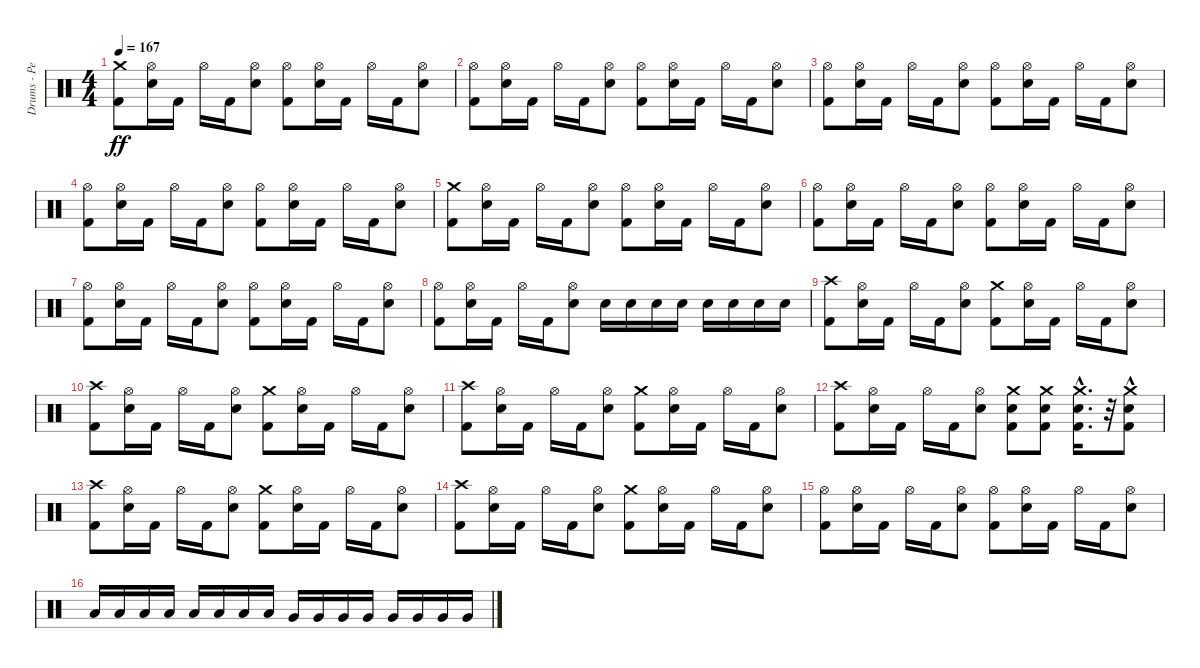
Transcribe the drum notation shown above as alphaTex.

\track ("Drums - Pete Finestone" "Drums - Pe") {instrument percussion}
\staff {score}
\articulation defaults
\ts (4 4)
\tempo 167
\clef neutral
\ks c
("Crash medium (hit)" "Kick (hit) 2").8{dy ff} ("Hi-Hat (open)" "Electric Snare (hit)").16 "Kick (hit) 2".16 "Hi-Hat (open)".16 "Kick (hit) 2".16 ("Electric Snare (hit)" "Hi-Hat (open)").8 ("Hi-Hat (open)" "Kick (hit) 2").8 ("Hi-Hat (open)" "Electric Snare (hit)").16 "Kick (hit) 2".16 "Hi-Hat (open)".16 "Kick (hit) 2".16 ("Hi-Hat (open)" "Electric Snare (hit)").8 |
("Hi-Hat (open)" "Kick (hit) 2").8 ("Hi-Hat (open)" "Electric Snare (hit)").16 "Kick (hit) 2".16 "Hi-Hat (open)".16 "Kick (hit) 2".16 ("Hi-Hat (open)" "Electric Snare (hit)").8 ("Hi-Hat (open)" "Kick (hit) 2").8 ("Hi-Hat (open)" "Electric Snare (hit)").16 "Kick (hit) 2".16 "Hi-Hat (open)".16 "Kick (hit) 2".16 ("Hi-Hat (open)" "Electric Snare (hit)").8 |
("Hi-Hat (open)" "Kick (hit) 2").8 ("Hi-Hat (open)" "Electric Snare (hit)").16 "Kick (hit) 2".16 "Hi-Hat (open)".16 "Kick (hit) 2".16 ("Hi-Hat (open)" "Electric Snare (hit)").8 ("Hi-Hat (open)" "Kick (hit) 2").8 ("Hi-Hat (open)" "Electric Snare (hit)").16 "Kick (hit) 2".16 "Hi-Hat (open)".16 "Kick (hit) 2".16 ("Hi-Hat (open)" "Electric Snare (hit)").8 |
("Hi-Hat (open)" "Kick (hit) 2").8 ("Hi-Hat (open)" "Electric Snare (hit)").16 "Kick (hit) 2".16 "Hi-Hat (open)".16 "Kick (hit) 2".16 ("Hi-Hat (open)" "Electric Snare (hit)").8 ("Hi-Hat (open)" "Kick (hit) 2").8 ("Hi-Hat (open)" "Electric Snare (hit)").16 "Kick (hit) 2".16 "Hi-Hat (open)".16 "Kick (hit) 2".16 ("Hi-Hat (open)" "Electric Snare (hit)").8 |
("Crash medium (hit)" "Kick (hit) 2").8 ("Hi-Hat (open)" "Electric Snare (hit)").16 "Kick (hit) 2".16 "Hi-Hat (open)".16 "Kick (hit) 2".16 ("Electric Snare (hit)" "Hi-Hat (open)").8 ("Hi-Hat (open)" "Kick (hit) 2").8 ("Hi-Hat (open)" "Electric Snare (hit)").16 "Kick (hit) 2".16 "Hi-Hat (open)".16 "Kick (hit) 2".16 ("Hi-Hat (open)" "Electric Snare (hit)").8 |
("Hi-Hat (open)" "Kick (hit) 2").8 ("Hi-Hat (open)" "Electric Snare (hit)").16 "Kick (hit) 2".16 "Hi-Hat (open)".16 "Kick (hit) 2".16 ("Hi-Hat (open)" "Electric Snare (hit)").8 ("Hi-Hat (open)" "Kick (hit) 2").8 ("Hi-Hat (open)" "Electric Snare (hit)").16 "Kick (hit) 2".16 "Hi-Hat (open)".16 "Kick (hit) 2".16 ("Hi-Hat (open)" "Electric Snare (hit)").8 |
("Hi-Hat (open)" "Kick (hit) 2").8 ("Hi-Hat (open)" "Electric Snare (hit)").16 "Kick (hit) 2".16 "Hi-Hat (open)".16 "Kick (hit) 2".16 ("Hi-Hat (open)" "Electric Snare (hit)").8 ("Hi-Hat (open)" "Kick (hit) 2").8 ("Hi-Hat (open)" "Electric Snare (hit)").16 "Kick (hit) 2".16 "Hi-Hat (open)".16 "Kick (hit) 2".16 ("Hi-Hat (open)" "Electric Snare (hit)").8 |
("Hi-Hat (open)" "Kick (hit) 2").8 ("Hi-Hat (open)" "Electric Snare (hit)").16 "Kick (hit) 2".16 "Hi-Hat (open)".16 "Kick (hit) 2".16 ("Hi-Hat (open)" "Electric Snare (hit)").8 "Electric Snare (hit)".16 "Electric Snare (hit)".16 "Electric Snare (hit)".16 "Electric Snare (hit)".16 "Electric Snare (hit)".16 "Electric Snare (hit)".16 "Electric Snare (hit)".16 "Electric Snare (hit)".16 |
("Kick (hit) 2" "Crash high (hit)").8 ("Electric Snare (hit)" "Hi-Hat (open)").16 "Kick (hit) 2".16 "Hi-Hat (open)".16 "Kick (hit) 2".16 ("Hi-Hat (open)" "Electric Snare (hit)").8 ("Crash medium (hit)" "Kick (hit) 2").8 ("Hi-Hat (open)" "Electric Snare (hit)").16 "Kick (hit) 2".16 "Hi-Hat (open)".16 "Kick (hit) 2".16 ("Hi-Hat (open)" "Electric Snare (hit)").8 |
("Kick (hit) 2" "Crash high (hit)").8 ("Electric Snare (hit)" "Hi-Hat (open)").16 "Kick (hit) 2".16 "Hi-Hat (open)".16 "Kick (hit) 2".16 ("Hi-Hat (open)" "Electric Snare (hit)").8 ("Crash medium (hit)" "Kick (hit) 2").8 ("Hi-Hat (open)" "Electric Snare (hit)").16 "Kick (hit) 2".16 "Hi-Hat (open)".16 "Kick (hit) 2".16 ("Hi-Hat (open)" "Electric Snare (hit)").8 |
("Kick (hit) 2" "Crash high (hit)").8 ("Electric Snare (hit)" "Hi-Hat (open)").16 "Kick (hit) 2".16 "Hi-Hat (open)".16 "Kick (hit) 2".16 ("Hi-Hat (open)" "Electric Snare (hit)").8 ("Crash medium (hit)" "Kick (hit) 2").8 ("Hi-Hat (open)" "Electric Snare (hit)").16 "Kick (hit) 2".16 "Hi-Hat (open)".16 "Kick (hit) 2".16 ("Hi-Hat (open)" "Electric Snare (hit)").8 |
("Kick (hit) 2" "Crash high (hit)").8 ("Electric Snare (hit)" "Hi-Hat (open)").16 "Kick (hit) 2".16 "Hi-Hat (open)".16 "Kick (hit) 2".16 ("Hi-Hat (open)" "Electric Snare (hit)").8 ("Crash medium (hit)" "Kick (hit) 2" "Electric Snare (hit)").8 ("Crash medium (hit)" "Kick (hit) 2" "Electric Snare (hit)").8 ("Crash medium (hit)"{hac} "Kick (hit) 2" "Electric Snare (hit)").16{d} r.32 ("Crash medium (hit)"{hac} "Kick (hit) 2" "Electric Snare (hit)").8 |
("Kick (hit) 2" "Crash high (hit)").8 ("Electric Snare (hit)" "Hi-Hat (open)").16 "Kick (hit) 2".16 "Hi-Hat (open)".16 "Kick (hit) 2".16 ("Hi-Hat (open)" "Electric Snare (hit)").8 ("Crash medium (hit)" "Kick (hit) 2").8 ("Hi-Hat (open)" "Electric Snare (hit)").16 "Kick (hit) 2".16 "Hi-Hat (open)".16 "Kick (hit) 2".16 ("Hi-Hat (open)" "Electric Snare (hit)").8 |
("Kick (hit) 2" "Crash high (hit)").8 ("Electric Snare (hit)" "Hi-Hat (open)").16 "Kick (hit) 2".16 "Hi-Hat (open)".16 "Kick (hit) 2".16 ("Hi-Hat (open)" "Electric Snare (hit)").8 ("Crash medium (hit)" "Kick (hit) 2").8 ("Hi-Hat (open)" "Electric Snare (hit)").16 "Kick (hit) 2".16 "Hi-Hat (open)".16 "Kick (hit) 2".16 ("Hi-Hat (open)" "Electric Snare (hit)").8 |
("Kick (hit) 2" "Hi-Hat (open)").8 ("Electric Snare (hit)" "Hi-Hat (open)").16 "Kick (hit) 2".16 "Hi-Hat (open)".16 "Kick (hit) 2".16 ("Hi-Hat (open)" "Electric Snare (hit)").8 ("Kick (hit) 2" "Hi-Hat (open)").8 ("Hi-Hat (open)" "Electric Snare (hit)").16 "Kick (hit) 2".16 "Hi-Hat (open)".16 "Kick (hit) 2".16 ("Hi-Hat (open)" "Electric Snare (hit)").8 |
"Low Tom (hit)".16 "Low Tom (hit)".16 "Low Tom (hit)".16 "Low Tom (hit)".16 "Low Tom (hit)".16 "Low Tom (hit)".16 "Low Tom (hit)".16 "Low Tom (hit)".16 "Very Low Tom (hit)".16 "Very Low Tom (hit)".16 "Very Low Tom (hit)".16 "Very Low Tom (hit)".16 "Very Low Tom (hit)".16 "Very Low Tom (hit)".16 "Very Low Tom (hit)".16 "Very Low Tom (hit)".16
